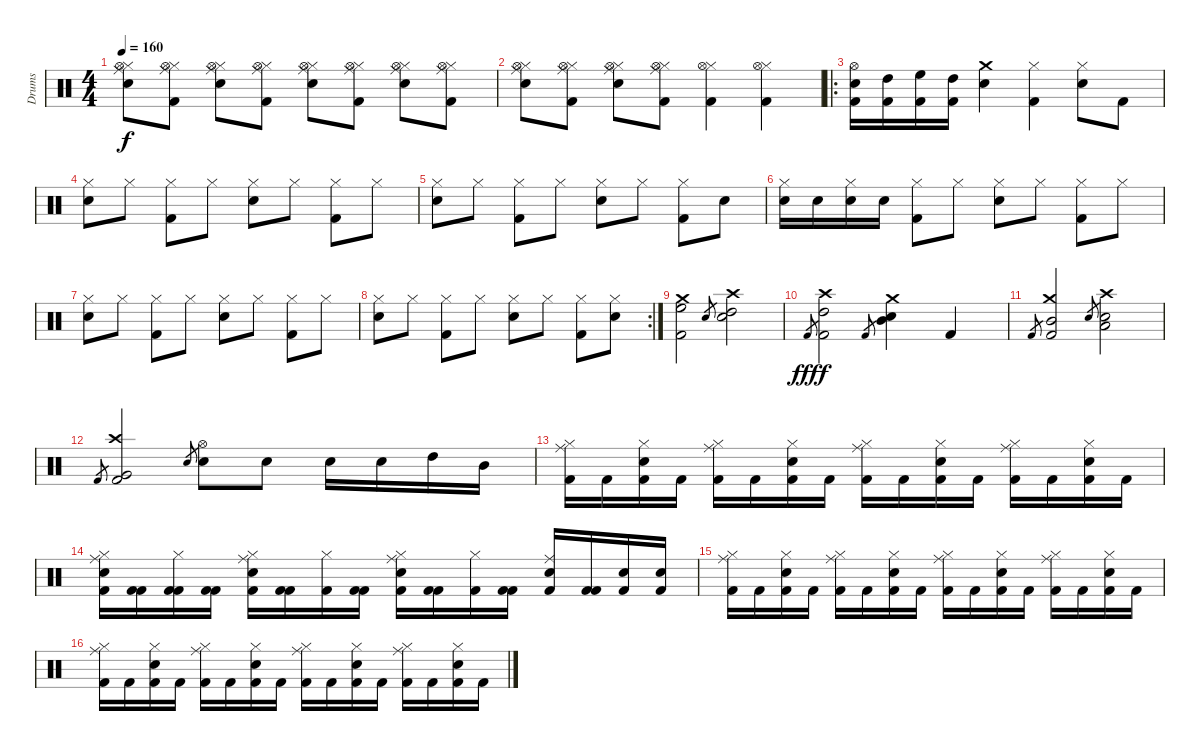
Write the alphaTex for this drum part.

\track ("Drums" "Drums") {instrument percussion}
\staff {score}
\articulation defaults
\ts (4 4)
\tempo 160
\clef neutral
\ks c
("Hi-Hat (closed)" "Electric Snare (hit)" "Hi-Hat (open)" "Ride (middle)").8{dy f} ("Hi-Hat (closed)" "Kick (hit) 2" "Hi-Hat (open)" "Ride (middle)").8 ("Hi-Hat (closed)" "Electric Snare (hit)" "Hi-Hat (open)" "Ride (middle)").8 ("Hi-Hat (closed)" "Kick (hit) 2" "Hi-Hat (open)" "Ride (middle)").8 ("Hi-Hat (closed)" "Electric Snare (hit)" "Hi-Hat (open)" "Ride (middle)").8 ("Hi-Hat (closed)" "Kick (hit) 2" "Hi-Hat (open)" "Ride (middle)").8 ("Hi-Hat (closed)" "Electric Snare (hit)" "Hi-Hat (open)" "Ride (middle)").8 ("Hi-Hat (closed)" "Kick (hit) 2" "Hi-Hat (open)" "Ride (middle)").8 |
("Hi-Hat (closed)" "Electric Snare (hit)" "Hi-Hat (open)" "Ride (middle)").8 ("Hi-Hat (closed)" "Kick (hit) 2" "Hi-Hat (open)" "Ride (middle)").8 ("Hi-Hat (closed)" "Electric Snare (hit)" "Hi-Hat (open)" "Ride (middle)").8 ("Hi-Hat (closed)" "Kick (hit) 2" "Hi-Hat (open)" "Ride (middle)").8 ("Hi-Hat (closed)" "Hi-Hat (open)" "Kick (hit) 2").4 ("Hi-Hat (closed)" "Hi-Hat (open)" "Kick (hit) 2").4 |
\ro
("Kick (hit) 2" "Hi-Hat (open)" "Electric Snare (hit)").16 ("Kick (hit) 2" "High Tom (hit)").16 ("Kick (hit) 2" "High Floor Tom (hit)").16 ("Kick (hit) 2" "High Tom (hit)").16 ("Electric Snare (hit)" "Crash medium (hit)").4 ("Hi-Hat (closed)" "Kick (hit) 2").4 ("Hi-Hat (closed)" "Electric Snare (hit)").8 "Kick (hit) 2".8 |
("Hi-Hat (closed)" "Electric Snare (hit)").8 "Hi-Hat (closed)".8 ("Hi-Hat (closed)" "Kick (hit) 2").8 "Hi-Hat (closed)".8 ("Hi-Hat (closed)" "Electric Snare (hit)").8 "Hi-Hat (closed)".8 ("Hi-Hat (closed)" "Kick (hit) 2").8 "Hi-Hat (closed)".8 |
("Hi-Hat (closed)" "Electric Snare (hit)").8 "Hi-Hat (closed)".8 ("Hi-Hat (closed)" "Kick (hit) 2").8 "Hi-Hat (closed)".8 ("Hi-Hat (closed)" "Electric Snare (hit)").8 "Hi-Hat (closed)".8 ("Hi-Hat (closed)" "Kick (hit) 2").8 "Electric Snare (hit)".8 |
("Hi-Hat (closed)" "Electric Snare (hit)").16 "Electric Snare (hit)".16 ("Hi-Hat (closed)" "Electric Snare (hit)").16 "Electric Snare (hit)".16 ("Hi-Hat (closed)" "Kick (hit) 2").8 "Hi-Hat (closed)".8 ("Hi-Hat (closed)" "Electric Snare (hit)").8 "Hi-Hat (closed)".8 ("Hi-Hat (closed)" "Kick (hit) 2").8 "Hi-Hat (closed)".8 |
("Hi-Hat (closed)" "Electric Snare (hit)").8 "Hi-Hat (closed)".8 ("Hi-Hat (closed)" "Kick (hit) 2").8 "Hi-Hat (closed)".8 ("Hi-Hat (closed)" "Electric Snare (hit)").8 "Hi-Hat (closed)".8 ("Hi-Hat (closed)" "Kick (hit) 2").8 "Hi-Hat (closed)".8 |
\rc 2
("Hi-Hat (closed)" "Electric Snare (hit)").8 "Hi-Hat (closed)".8 ("Hi-Hat (closed)" "Kick (hit) 2").8 "Hi-Hat (closed)".8 ("Hi-Hat (closed)" "Electric Snare (hit)").8 "Hi-Hat (closed)".8 ("Hi-Hat (closed)" "Kick (hit) 2").8 ("Hi-Hat (closed)" "Electric Snare (hit)").8 |
("High Floor Tom (hit)" "Kick (hit) 2" "Crash medium (hit)").2 "Electric Snare (hit)".8{gr} ("High Tom (hit)" "Electric Snare (hit)" "Crash high (hit)").2 |
"Kick (hit) 2".8{gr dy fff} ("High Tom (hit)" "Kick (hit) 2" "Crash high (hit)").2{dy f} "Kick (hit) 2".8{gr} ("Mid Tom (hit)" "Electric Snare (hit)" "Crash medium (hit)").4 "Kick (hit) 2".4 |
"Kick (hit) 2".8{gr} ("Mid Tom (hit)" "Kick (hit) 2" "Crash medium (hit)").2 "Electric Snare (hit)".8{gr} ("Low Tom (hit)" "Electric Snare (hit)" "Crash high (hit)").2 |
"Kick (hit) 2".8{gr} ("Very Low Tom (hit)" "Kick (hit) 2" "Crash high (hit)").2 "Electric Snare (hit)".8{gr} ("Electric Snare (hit)" "Hi-Hat (open)").8 "Electric Snare (hit)".8 "Electric Snare (hit)".16 "Electric Snare (hit)".16 "High Tom (hit)".16 "Mid Tom (hit)".16 |
("Kick (hit) 2" "Ride (middle)" "Hi-Hat (closed)").16 "Kick (hit) 2".16 ("Electric Snare (hit)" "Kick (hit) 2" "Hi-Hat (closed)").16 "Kick (hit) 2".16 ("Kick (hit) 2" "Ride (middle)" "Hi-Hat (closed)").16 "Kick (hit) 2".16 ("Electric Snare (hit)" "Kick (hit) 2" "Hi-Hat (closed)").16 "Kick (hit) 2".16 ("Kick (hit) 2" "Ride (middle)" "Hi-Hat (closed)").16 "Kick (hit) 2".16 ("Electric Snare (hit)" "Kick (hit) 2" "Hi-Hat (closed)").16 "Kick (hit) 2".16 ("Kick (hit) 2" "Ride (middle)" "Hi-Hat (closed)").16 "Kick (hit) 2".16 ("Electric Snare (hit)" "Kick (hit) 2" "Hi-Hat (closed)").16 "Kick (hit) 2".16 |
("Electric Snare (hit)" "Kick (hit) 2" "Ride (middle)" "Hi-Hat (closed)").16 ("Kick (hit) 2" "Kick (hit) 2").16 ("Kick (hit) 2" "Kick (hit) 2" "Hi-Hat (closed)").16 ("Kick (hit) 2" "Kick (hit) 2").16 ("Electric Snare (hit)" "Kick (hit) 2" "Ride (middle)" "Hi-Hat (closed)").16 ("Kick (hit) 2" "Kick (hit) 2").16 ("Kick (hit) 2" "Hi-Hat (closed)").16 ("Kick (hit) 2" "Kick (hit) 2").16 ("Electric Snare (hit)" "Kick (hit) 2" "Ride (middle)" "Hi-Hat (closed)").16 ("Kick (hit) 2" "Kick (hit) 2").16 ("Kick (hit) 2" "Hi-Hat (closed)").16 ("Kick (hit) 2" "Kick (hit) 2").16 ("Electric Snare (hit)" "Kick (hit) 2" "Ride (middle)").16 ("Kick (hit) 2" "Kick (hit) 2").16 ("Electric Snare (hit)" "Kick (hit) 2").16 ("Electric Snare (hit)" "Kick (hit) 2").16 |
("Kick (hit) 2" "Ride (middle)" "Hi-Hat (closed)").16 "Kick (hit) 2".16 ("Electric Snare (hit)" "Kick (hit) 2" "Hi-Hat (closed)").16 "Kick (hit) 2".16 ("Kick (hit) 2" "Ride (middle)" "Hi-Hat (closed)").16 "Kick (hit) 2".16 ("Electric Snare (hit)" "Kick (hit) 2" "Hi-Hat (closed)").16 "Kick (hit) 2".16 ("Kick (hit) 2" "Ride (middle)" "Hi-Hat (closed)").16 "Kick (hit) 2".16 ("Electric Snare (hit)" "Kick (hit) 2" "Hi-Hat (closed)").16 "Kick (hit) 2".16 ("Kick (hit) 2" "Ride (middle)" "Hi-Hat (closed)").16 "Kick (hit) 2".16 ("Electric Snare (hit)" "Kick (hit) 2" "Hi-Hat (closed)").16 "Kick (hit) 2".16 |
("Kick (hit) 2" "Ride (middle)" "Hi-Hat (closed)").16 "Kick (hit) 2".16 ("Electric Snare (hit)" "Kick (hit) 2" "Hi-Hat (closed)").16 "Kick (hit) 2".16 ("Kick (hit) 2" "Ride (middle)" "Hi-Hat (closed)").16 "Kick (hit) 2".16 ("Electric Snare (hit)" "Kick (hit) 2" "Hi-Hat (closed)").16 "Kick (hit) 2".16 ("Kick (hit) 2" "Ride (middle)" "Hi-Hat (closed)").16 "Kick (hit) 2".16 ("Electric Snare (hit)" "Kick (hit) 2" "Hi-Hat (closed)").16 "Kick (hit) 2".16 ("Kick (hit) 2" "Ride (middle)" "Hi-Hat (closed)").16 "Kick (hit) 2".16 ("Electric Snare (hit)" "Kick (hit) 2" "Hi-Hat (closed)").16 "Kick (hit) 2".16
